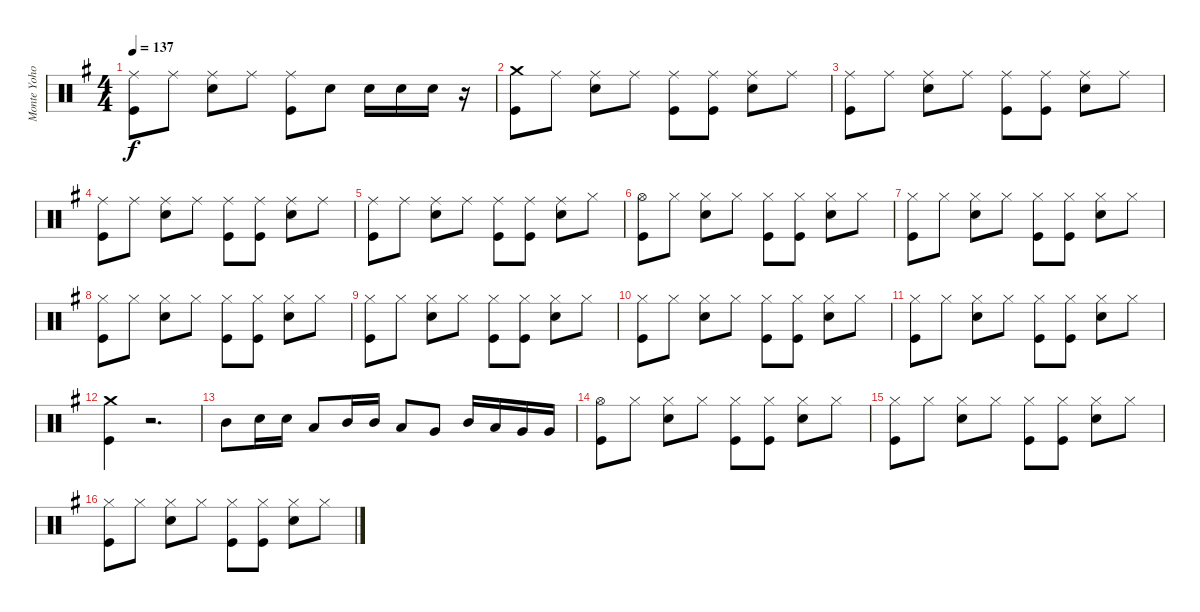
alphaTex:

\track ("Monte Yoho Drums" "Monte Yoho") {instrument percussion}
\staff {score}
\articulation defaults
\ts (4 4)
\tempo 137
\clef neutral
\ks g
("Ride (middle)" "Kick (hit)").8{dy f} "Ride (middle)".8 ("Ride (middle)" "Snare (hit) 2").8 "Ride (middle)".8 ("Ride (middle)" "Kick (hit)").8 "Snare (hit) 2".8 "Snare (hit) 2".16 "Snare (hit) 2".16 "Snare (hit) 2".16 r.16 |
("Crash medium (hit)" "Kick (hit)").8 "Ride (middle)".8 ("Ride (middle)" "Snare (hit) 2").8 "Ride (middle)".8 ("Ride (middle)" "Kick (hit)").8 ("Ride (middle)" "Kick (hit)").8 ("Ride (middle)" "Snare (hit) 2").8 "Ride (middle)".8 |
("Ride (middle)" "Kick (hit)").8 "Ride (middle)".8 ("Ride (middle)" "Snare (hit) 2").8 "Ride (middle)".8 ("Ride (middle)" "Kick (hit)").8 ("Ride (middle)" "Kick (hit)").8 ("Ride (middle)" "Snare (hit) 2").8 "Ride (middle)".8 |
("Ride (middle)" "Kick (hit)").8 "Ride (middle)".8 ("Ride (middle)" "Snare (hit) 2").8 "Ride (middle)".8 ("Ride (middle)" "Kick (hit)").8 ("Ride (middle)" "Kick (hit)").8 ("Ride (middle)" "Snare (hit) 2").8 "Ride (middle)".8 |
("Ride (middle)" "Kick (hit)").8 "Ride (middle)".8 ("Ride (middle)" "Snare (hit) 2").8 "Ride (middle)".8 ("Ride (middle)" "Kick (hit)").8 ("Ride (middle)" "Kick (hit)").8 ("Ride (middle)" "Snare (hit) 2").8 "Hi-Hat (closed)".8 |
("Hi-Hat (open)" "Kick (hit)").8 "Hi-Hat (closed)".8 ("Hi-Hat (closed)" "Snare (hit) 2").8 "Hi-Hat (closed)".8 ("Hi-Hat (closed)" "Kick (hit)").8 ("Hi-Hat (closed)" "Kick (hit)").8 ("Hi-Hat (closed)" "Snare (hit) 2").8 "Hi-Hat (closed)".8 |
("Hi-Hat (closed)" "Kick (hit)").8 "Hi-Hat (closed)".8 ("Hi-Hat (closed)" "Snare (hit) 2").8 "Hi-Hat (closed)".8 ("Hi-Hat (closed)" "Kick (hit)").8 ("Hi-Hat (closed)" "Kick (hit)").8 ("Hi-Hat (closed)" "Snare (hit) 2").8 "Hi-Hat (closed)".8 |
("Hi-Hat (closed)" "Kick (hit)").8 "Hi-Hat (closed)".8 ("Hi-Hat (closed)" "Snare (hit) 2").8 "Hi-Hat (closed)".8 ("Hi-Hat (closed)" "Kick (hit)").8 ("Hi-Hat (closed)" "Kick (hit)").8 ("Hi-Hat (closed)" "Snare (hit) 2").8 "Hi-Hat (closed)".8 |
("Hi-Hat (closed)" "Kick (hit)").8 "Hi-Hat (closed)".8 ("Hi-Hat (closed)" "Snare (hit) 2").8 "Hi-Hat (closed)".8 ("Hi-Hat (closed)" "Kick (hit)").8 ("Hi-Hat (closed)" "Kick (hit)").8 ("Hi-Hat (closed)" "Snare (hit) 2").8 "Hi-Hat (closed)".8 |
("Hi-Hat (closed)" "Kick (hit)").8 "Hi-Hat (closed)".8 ("Hi-Hat (closed)" "Snare (hit) 2").8 "Hi-Hat (closed)".8 ("Hi-Hat (closed)" "Kick (hit)").8 ("Hi-Hat (closed)" "Kick (hit)").8 ("Hi-Hat (closed)" "Snare (hit) 2").8 "Hi-Hat (closed)".8 |
("Hi-Hat (closed)" "Kick (hit)").8 "Hi-Hat (closed)".8 ("Hi-Hat (closed)" "Snare (hit) 2").8 "Hi-Hat (closed)".8 ("Hi-Hat (closed)" "Kick (hit)").8 ("Hi-Hat (closed)" "Kick (hit)").8 ("Hi-Hat (closed)" "Snare (hit) 2").8 "Hi-Hat (closed)".8 |
("Crash medium (hit)" "Kick (hit)").4 r.2{d} |
"Mid Tom (hit)".8 "Snare (hit) 2".16 "Snare (hit) 2".16 "Low Tom (hit)".8 "Mid Tom (hit)".16 "Mid Tom (hit)".16 "Low Tom (hit)".8 "Very Low Tom (hit)".8 "Mid Tom (hit)".16 "Low Tom (hit)".16 "Very Low Tom (hit)".16 "Very Low Tom (hit)".16 |
("Hi-Hat (open)" "Kick (hit)").8 "Hi-Hat (closed)".8 ("Hi-Hat (closed)" "Snare (hit) 2").8 "Hi-Hat (closed)".8 ("Hi-Hat (closed)" "Kick (hit)").8 ("Hi-Hat (closed)" "Kick (hit)").8 ("Hi-Hat (closed)" "Snare (hit) 2").8 "Hi-Hat (closed)".8 |
("Hi-Hat (closed)" "Kick (hit)").8 "Hi-Hat (closed)".8 ("Hi-Hat (closed)" "Snare (hit) 2").8 "Hi-Hat (closed)".8 ("Hi-Hat (closed)" "Kick (hit)").8 ("Hi-Hat (closed)" "Kick (hit)").8 ("Hi-Hat (closed)" "Snare (hit) 2").8 "Hi-Hat (closed)".8 |
("Hi-Hat (closed)" "Kick (hit)").8 "Hi-Hat (closed)".8 ("Hi-Hat (closed)" "Snare (hit) 2").8 "Hi-Hat (closed)".8 ("Hi-Hat (closed)" "Kick (hit)").8 ("Hi-Hat (closed)" "Kick (hit)").8 ("Hi-Hat (closed)" "Snare (hit) 2").8 "Hi-Hat (closed)".8
